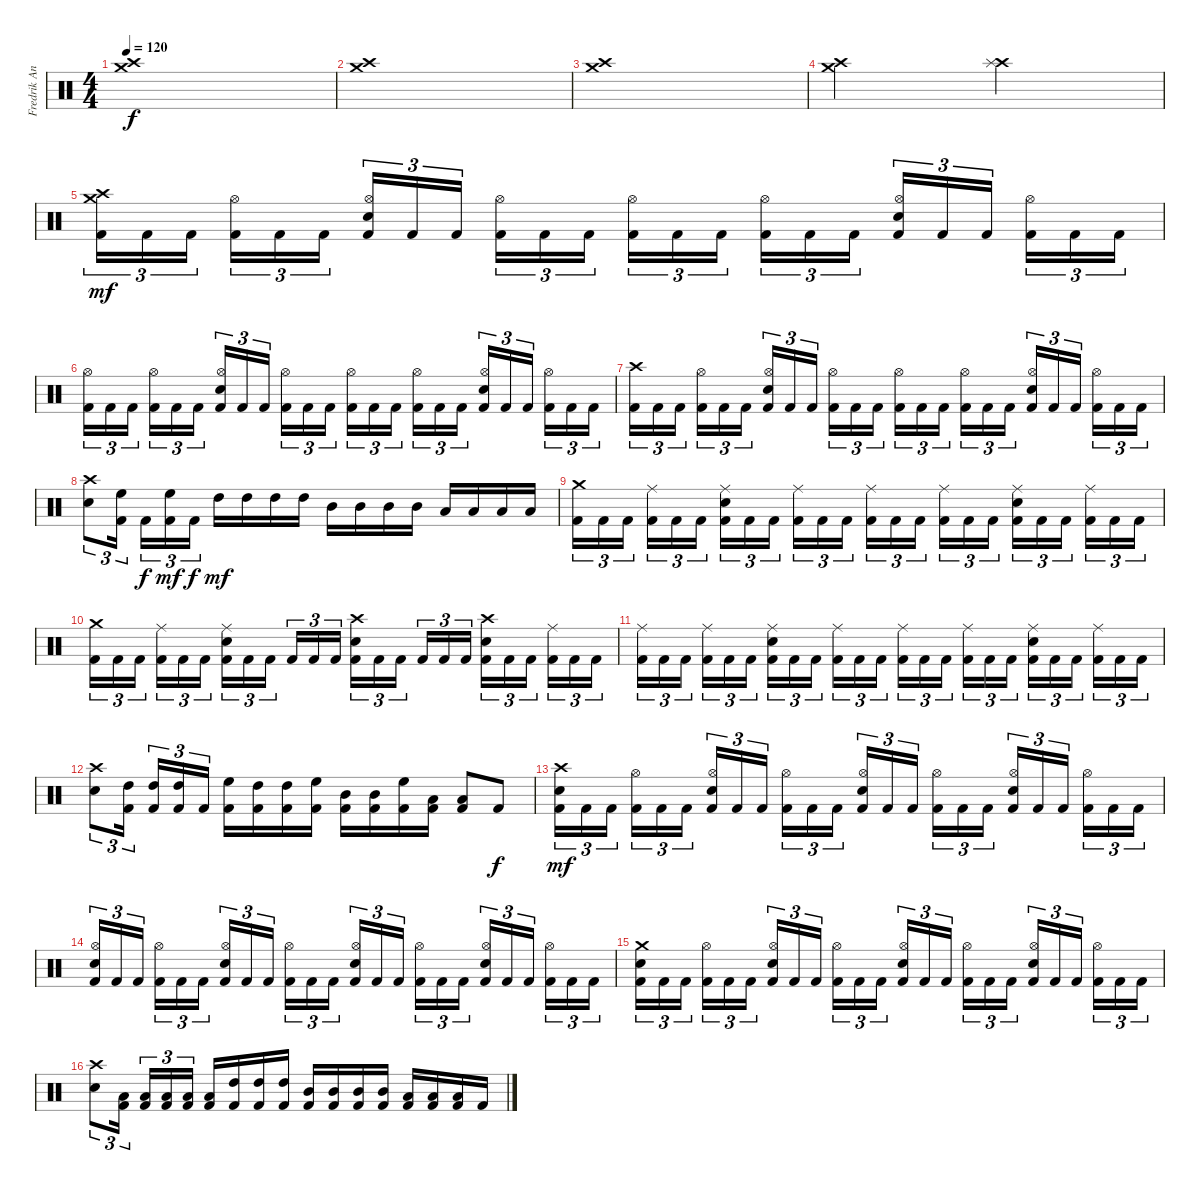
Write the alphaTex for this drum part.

\track ("Fredrik Andersson" "Fredrik An") {instrument percussion}
\staff {score}
\articulation defaults
\ts (4 4)
\tempo 120
\clef neutral
\ks c
("Crash high (hit)" "Crash medium (hit)").1{dy f} |
("Crash high (hit)" "Crash medium (hit)").1 |
("Crash high (hit)" "Crash medium (hit)").1 |
("Crash high (hit)" "Crash medium (hit)").2 ("Crash high (hit)" "Splash (hit)").2 |
("Crash medium (hit)" "Crash high (hit)" "Kick (hit) 2").16{tu (3 2) dy mf} "Kick (hit) 2".16{tu (3 2)} "Kick (hit) 2".16{tu (3 2) beam splitsecondary} ("Hi-Hat (open)" "Kick (hit) 2").16{tu (3 2)} "Kick (hit) 2".16{tu (3 2)} "Kick (hit) 2".16{tu (3 2)} ("Snare (hit) 2" "Hi-Hat (open)" "Kick (hit) 2").16{tu (3 2)} "Kick (hit) 2".16{tu (3 2)} "Kick (hit) 2".16{tu (3 2) beam splitsecondary} ("Hi-Hat (open)" "Kick (hit) 2").16{tu (3 2)} "Kick (hit) 2".16{tu (3 2)} "Kick (hit) 2".16{tu (3 2)} ("Hi-Hat (open)" "Kick (hit) 2").16{tu (3 2)} "Kick (hit) 2".16{tu (3 2)} "Kick (hit) 2".16{tu (3 2) beam splitsecondary} ("Hi-Hat (open)" "Kick (hit) 2").16{tu (3 2)} "Kick (hit) 2".16{tu (3 2)} "Kick (hit) 2".16{tu (3 2)} ("Snare (hit) 2" "Hi-Hat (open)" "Kick (hit) 2").16{tu (3 2)} "Kick (hit) 2".16{tu (3 2)} "Kick (hit) 2".16{tu (3 2) beam splitsecondary} ("Hi-Hat (open)" "Kick (hit) 2").16{tu (3 2)} "Kick (hit) 2".16{tu (3 2)} "Kick (hit) 2".16{tu (3 2)} |
("Hi-Hat (open)" "Kick (hit) 2").16{tu (3 2)} "Kick (hit) 2".16{tu (3 2)} "Kick (hit) 2".16{tu (3 2) beam splitsecondary} ("Hi-Hat (open)" "Kick (hit) 2").16{tu (3 2)} "Kick (hit) 2".16{tu (3 2)} "Kick (hit) 2".16{tu (3 2)} ("Snare (hit) 2" "Hi-Hat (open)" "Kick (hit) 2").16{tu (3 2)} "Kick (hit) 2".16{tu (3 2)} "Kick (hit) 2".16{tu (3 2) beam splitsecondary} ("Hi-Hat (open)" "Kick (hit) 2").16{tu (3 2)} "Kick (hit) 2".16{tu (3 2)} "Kick (hit) 2".16{tu (3 2)} ("Hi-Hat (open)" "Kick (hit) 2").16{tu (3 2)} "Kick (hit) 2".16{tu (3 2)} "Kick (hit) 2".16{tu (3 2) beam splitsecondary} ("Hi-Hat (open)" "Kick (hit) 2").16{tu (3 2)} "Kick (hit) 2".16{tu (3 2)} "Kick (hit) 2".16{tu (3 2)} ("Snare (hit) 2" "Hi-Hat (open)" "Kick (hit) 2").16{tu (3 2)} "Kick (hit) 2".16{tu (3 2)} "Kick (hit) 2".16{tu (3 2) beam splitsecondary} ("Hi-Hat (open)" "Kick (hit) 2").16{tu (3 2)} "Kick (hit) 2".16{tu (3 2)} "Kick (hit) 2".16{tu (3 2)} |
("Crash high (hit)" "Kick (hit) 2").16{tu (3 2)} "Kick (hit) 2".16{tu (3 2)} "Kick (hit) 2".16{tu (3 2) beam splitsecondary} ("Hi-Hat (open)" "Kick (hit) 2").16{tu (3 2)} "Kick (hit) 2".16{tu (3 2)} "Kick (hit) 2".16{tu (3 2)} ("Snare (hit) 2" "Hi-Hat (open)" "Kick (hit) 2").16{tu (3 2)} "Kick (hit) 2".16{tu (3 2)} "Kick (hit) 2".16{tu (3 2) beam splitsecondary} ("Hi-Hat (open)" "Kick (hit) 2").16{tu (3 2)} "Kick (hit) 2".16{tu (3 2)} "Kick (hit) 2".16{tu (3 2)} ("Hi-Hat (open)" "Kick (hit) 2").16{tu (3 2)} "Kick (hit) 2".16{tu (3 2)} "Kick (hit) 2".16{tu (3 2) beam splitsecondary} ("Hi-Hat (open)" "Kick (hit) 2").16{tu (3 2)} "Kick (hit) 2".16{tu (3 2)} "Kick (hit) 2".16{tu (3 2)} ("Snare (hit) 2" "Hi-Hat (open)" "Kick (hit) 2").16{tu (3 2)} "Kick (hit) 2".16{tu (3 2)} "Kick (hit) 2".16{tu (3 2) beam splitsecondary} ("Hi-Hat (open)" "Kick (hit) 2").16{tu (3 2)} "Kick (hit) 2".16{tu (3 2)} "Kick (hit) 2".16{tu (3 2)} |
("Crash high (hit)" "Snare (hit) 2").8{tu (3 2)} ("High Floor Tom (hit)" "Kick (hit) 2").16{tu (3 2) beam splitsecondary} "Kick (hit) 2".16{tu (3 2) dy f} ("High Floor Tom (hit)" "Kick (hit) 2").16{tu (3 2) dy mf} "Kick (hit) 2".16{tu (3 2) dy f} "High Tom (hit)".16{dy mf} "High Tom (hit)".16 "High Tom (hit)".16 "High Tom (hit)".16 "Mid Tom (hit)".16 "Mid Tom (hit)".16 "Mid Tom (hit)".16 "Mid Tom (hit)".16 "Low Tom (hit)".16 "Low Tom (hit)".16 "Low Tom (hit)".16 "Low Tom (hit)".16 |
("Crash medium (hit)" "Kick (hit) 2").16{tu (3 2)} "Kick (hit) 2".16{tu (3 2)} "Kick (hit) 2".16{tu (3 2) beam splitsecondary} ("Ride (middle)" "Kick (hit) 2").16{tu (3 2)} "Kick (hit) 2".16{tu (3 2)} "Kick (hit) 2".16{tu (3 2)} ("Snare (hit) 2" "Ride (middle)" "Kick (hit) 2").16{tu (3 2)} "Kick (hit) 2".16{tu (3 2)} "Kick (hit) 2".16{tu (3 2) beam splitsecondary} ("Ride (middle)" "Kick (hit) 2").16{tu (3 2)} "Kick (hit) 2".16{tu (3 2)} "Kick (hit) 2".16{tu (3 2)} ("Ride (middle)" "Kick (hit) 2").16{tu (3 2)} "Kick (hit) 2".16{tu (3 2)} "Kick (hit) 2".16{tu (3 2) beam splitsecondary} ("Ride (middle)" "Kick (hit) 2").16{tu (3 2)} "Kick (hit) 2".16{tu (3 2)} "Kick (hit) 2".16{tu (3 2)} ("Snare (hit) 2" "Ride (middle)" "Kick (hit) 2").16{tu (3 2)} "Kick (hit) 2".16{tu (3 2)} "Kick (hit) 2".16{tu (3 2) beam splitsecondary} ("Ride (middle)" "Kick (hit) 2").16{tu (3 2)} "Kick (hit) 2".16{tu (3 2)} "Kick (hit) 2".16{tu (3 2)} |
("Crash medium (hit)" "Kick (hit) 2").16{tu (3 2)} "Kick (hit) 2".16{tu (3 2)} "Kick (hit) 2".16{tu (3 2) beam splitsecondary} ("Ride (middle)" "Kick (hit) 2").16{tu (3 2)} "Kick (hit) 2".16{tu (3 2)} "Kick (hit) 2".16{tu (3 2)} ("Snare (hit) 2" "Ride (middle)" "Kick (hit) 2").16{tu (3 2)} "Kick (hit) 2".16{tu (3 2)} "Kick (hit) 2".16{tu (3 2) beam splitsecondary} "Kick (hit) 2".16{tu (3 2)} "Kick (hit) 2".16{tu (3 2)} "Kick (hit) 2".16{tu (3 2)} ("Snare (hit) 2" "Crash high (hit)" "Kick (hit) 2").16{tu (3 2)} "Kick (hit) 2".16{tu (3 2)} "Kick (hit) 2".16{tu (3 2) beam splitsecondary} "Kick (hit) 2".16{tu (3 2)} "Kick (hit) 2".16{tu (3 2)} "Kick (hit) 2".16{tu (3 2)} ("Snare (hit) 2" "Crash high (hit)" "Kick (hit) 2").16{tu (3 2)} "Kick (hit) 2".16{tu (3 2)} "Kick (hit) 2".16{tu (3 2) beam splitsecondary} ("Ride (middle)" "Kick (hit) 2").16{tu (3 2)} "Kick (hit) 2".16{tu (3 2)} "Kick (hit) 2".16{tu (3 2)} |
("Ride (middle)" "Kick (hit) 2").16{tu (3 2)} "Kick (hit) 2".16{tu (3 2)} "Kick (hit) 2".16{tu (3 2) beam splitsecondary} ("Ride (middle)" "Kick (hit) 2").16{tu (3 2)} "Kick (hit) 2".16{tu (3 2)} "Kick (hit) 2".16{tu (3 2)} ("Snare (hit) 2" "Ride (middle)" "Kick (hit) 2").16{tu (3 2)} "Kick (hit) 2".16{tu (3 2)} "Kick (hit) 2".16{tu (3 2) beam splitsecondary} ("Ride (middle)" "Kick (hit) 2").16{tu (3 2)} "Kick (hit) 2".16{tu (3 2)} "Kick (hit) 2".16{tu (3 2)} ("Ride (middle)" "Kick (hit) 2").16{tu (3 2)} "Kick (hit) 2".16{tu (3 2)} "Kick (hit) 2".16{tu (3 2) beam splitsecondary} ("Ride (middle)" "Kick (hit) 2").16{tu (3 2)} "Kick (hit) 2".16{tu (3 2)} "Kick (hit) 2".16{tu (3 2)} ("Snare (hit) 2" "Ride (middle)" "Kick (hit) 2").16{tu (3 2)} "Kick (hit) 2".16{tu (3 2)} "Kick (hit) 2".16{tu (3 2) beam splitsecondary} ("Ride (middle)" "Kick (hit) 2").16{tu (3 2)} "Kick (hit) 2".16{tu (3 2)} "Kick (hit) 2".16{tu (3 2)} |
("Crash high (hit)" "Snare (hit) 2").8{tu (3 2)} ("High Tom (hit)" "Kick (hit) 2").16{tu (3 2) beam splitsecondary} ("High Tom (hit)" "Kick (hit) 2").16{tu (3 2)} ("High Tom (hit)" "Kick (hit) 2").16{tu (3 2)} "Kick (hit) 2".16{tu (3 2)} ("High Floor Tom (hit)" "Kick (hit) 2").16 ("High Tom (hit)" "Kick (hit) 2").16 ("High Tom (hit)" "Kick (hit) 2").16 ("High Floor Tom (hit)" "Kick (hit) 2").16 ("Mid Tom (hit)" "Kick (hit) 2").16 ("Mid Tom (hit)" "Kick (hit) 2").16 ("High Floor Tom (hit)" "Kick (hit) 2").16 ("Low Tom (hit)" "Kick (hit) 2").16 ("Low Tom (hit)" "Kick (hit) 2").8 "Kick (hit) 2".8{dy f} |
("Snare (hit) 2" "Crash high (hit)" "Kick (hit) 2").16{tu (3 2) dy mf} "Kick (hit) 2".16{tu (3 2)} "Kick (hit) 2".16{tu (3 2) beam splitsecondary} ("Hi-Hat (open)" "Kick (hit) 2").16{tu (3 2)} "Kick (hit) 2".16{tu (3 2)} "Kick (hit) 2".16{tu (3 2)} ("Snare (hit) 2" "Hi-Hat (open)" "Kick (hit) 2").16{tu (3 2)} "Kick (hit) 2".16{tu (3 2)} "Kick (hit) 2".16{tu (3 2) beam splitsecondary} ("Hi-Hat (open)" "Kick (hit) 2").16{tu (3 2)} "Kick (hit) 2".16{tu (3 2)} "Kick (hit) 2".16{tu (3 2)} ("Snare (hit) 2" "Hi-Hat (open)" "Kick (hit) 2").16{tu (3 2)} "Kick (hit) 2".16{tu (3 2)} "Kick (hit) 2".16{tu (3 2) beam splitsecondary} ("Hi-Hat (open)" "Kick (hit) 2").16{tu (3 2)} "Kick (hit) 2".16{tu (3 2)} "Kick (hit) 2".16{tu (3 2)} ("Snare (hit) 2" "Hi-Hat (open)" "Kick (hit) 2").16{tu (3 2)} "Kick (hit) 2".16{tu (3 2)} "Kick (hit) 2".16{tu (3 2) beam splitsecondary} ("Hi-Hat (open)" "Kick (hit) 2").16{tu (3 2)} "Kick (hit) 2".16{tu (3 2)} "Kick (hit) 2".16{tu (3 2)} |
("Snare (hit) 2" "Hi-Hat (open)" "Kick (hit) 2").16{tu (3 2)} "Kick (hit) 2".16{tu (3 2)} "Kick (hit) 2".16{tu (3 2) beam splitsecondary} ("Hi-Hat (open)" "Kick (hit) 2").16{tu (3 2)} "Kick (hit) 2".16{tu (3 2)} "Kick (hit) 2".16{tu (3 2)} ("Snare (hit) 2" "Hi-Hat (open)" "Kick (hit) 2").16{tu (3 2)} "Kick (hit) 2".16{tu (3 2)} "Kick (hit) 2".16{tu (3 2) beam splitsecondary} ("Hi-Hat (open)" "Kick (hit) 2").16{tu (3 2)} "Kick (hit) 2".16{tu (3 2)} "Kick (hit) 2".16{tu (3 2)} ("Snare (hit) 2" "Hi-Hat (open)" "Kick (hit) 2").16{tu (3 2)} "Kick (hit) 2".16{tu (3 2)} "Kick (hit) 2".16{tu (3 2) beam splitsecondary} ("Hi-Hat (open)" "Kick (hit) 2").16{tu (3 2)} "Kick (hit) 2".16{tu (3 2)} "Kick (hit) 2".16{tu (3 2)} ("Snare (hit) 2" "Hi-Hat (open)" "Kick (hit) 2").16{tu (3 2)} "Kick (hit) 2".16{tu (3 2)} "Kick (hit) 2".16{tu (3 2) beam splitsecondary} ("Hi-Hat (open)" "Kick (hit) 2").16{tu (3 2)} "Kick (hit) 2".16{tu (3 2)} "Kick (hit) 2".16{tu (3 2)} |
("Snare (hit) 2" "Crash medium (hit)" "Kick (hit) 2").16{tu (3 2)} "Kick (hit) 2".16{tu (3 2)} "Kick (hit) 2".16{tu (3 2) beam splitsecondary} ("Hi-Hat (open)" "Kick (hit) 2").16{tu (3 2)} "Kick (hit) 2".16{tu (3 2)} "Kick (hit) 2".16{tu (3 2)} ("Snare (hit) 2" "Hi-Hat (open)" "Kick (hit) 2").16{tu (3 2)} "Kick (hit) 2".16{tu (3 2)} "Kick (hit) 2".16{tu (3 2) beam splitsecondary} ("Hi-Hat (open)" "Kick (hit) 2").16{tu (3 2)} "Kick (hit) 2".16{tu (3 2)} "Kick (hit) 2".16{tu (3 2)} ("Snare (hit) 2" "Hi-Hat (open)" "Kick (hit) 2").16{tu (3 2)} "Kick (hit) 2".16{tu (3 2)} "Kick (hit) 2".16{tu (3 2) beam splitsecondary} ("Hi-Hat (open)" "Kick (hit) 2").16{tu (3 2)} "Kick (hit) 2".16{tu (3 2)} "Kick (hit) 2".16{tu (3 2)} ("Snare (hit) 2" "Hi-Hat (open)" "Kick (hit) 2").16{tu (3 2)} "Kick (hit) 2".16{tu (3 2)} "Kick (hit) 2".16{tu (3 2) beam splitsecondary} ("Hi-Hat (open)" "Kick (hit) 2").16{tu (3 2)} "Kick (hit) 2".16{tu (3 2)} "Kick (hit) 2".16{tu (3 2)} |
("Crash high (hit)" "Snare (hit) 2").8{tu (3 2)} ("Low Tom (hit)" "Kick (hit) 2").16{tu (3 2) beam splitsecondary} ("Low Tom (hit)" "Kick (hit) 2").16{tu (3 2)} ("Low Tom (hit)" "Kick (hit) 2").16{tu (3 2)} ("Low Tom (hit)" "Kick (hit) 2").16{tu (3 2)} ("Low Tom (hit)" "Kick (hit) 2").16 ("High Tom (hit)" "Kick (hit) 2").16 ("High Tom (hit)" "Kick (hit) 2").16 ("High Tom (hit)" "Kick (hit) 2").16 ("Mid Tom (hit)" "Kick (hit) 2").16 ("Mid Tom (hit)" "Kick (hit) 2").16 ("Mid Tom (hit)" "Kick (hit) 2").16 ("Mid Tom (hit)" "Kick (hit) 2").16 ("Low Tom (hit)" "Kick (hit) 2").16 ("Low Tom (hit)" "Kick (hit) 2").16 ("Low Tom (hit)" "Kick (hit) 2").16 "Kick (hit) 2".16
